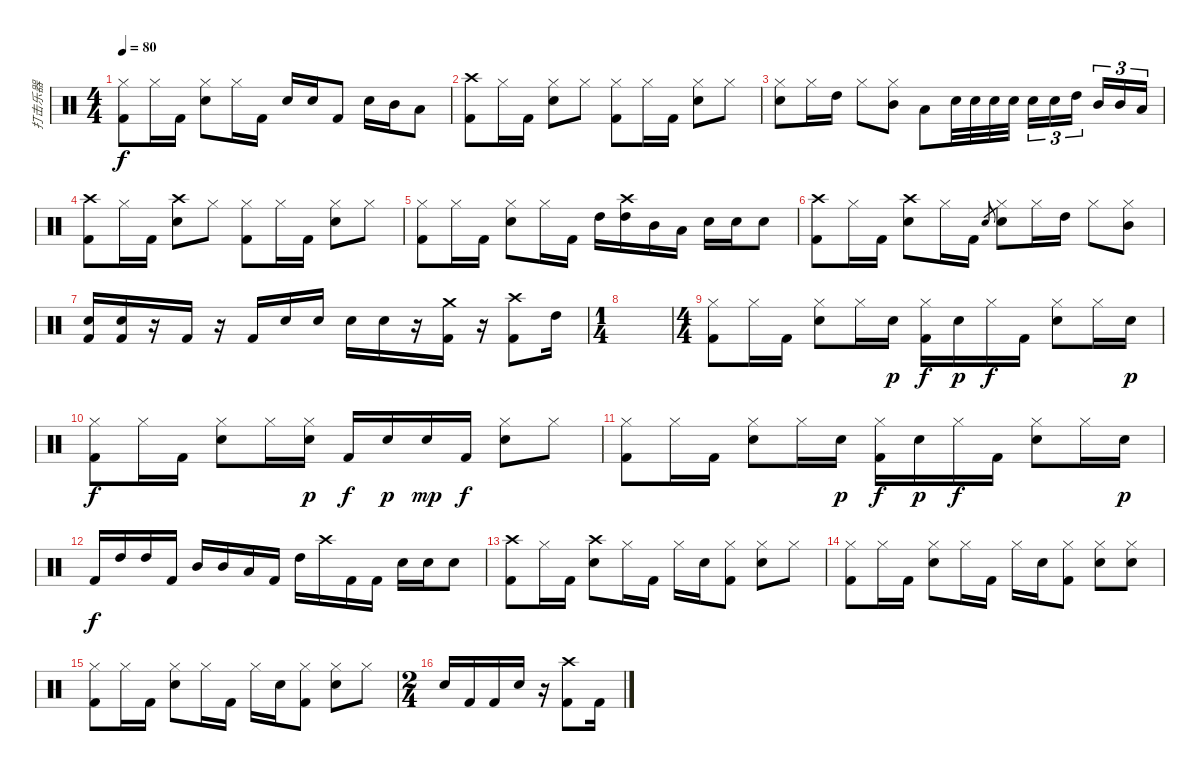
\track ("打击乐器" "打击乐器") {instrument percussion}
\staff {score}
\articulation defaults
\ts (4 4)
\tempo 80
\clef neutral
\ks c
("Hi-Hat (closed)" "Kick (hit) 2").8{dy f} "Hi-Hat (closed)".16 "Kick (hit) 2".16 ("Hi-Hat (closed)" "Electric Snare (hit)").8 "Hi-Hat (closed)".16 "Kick (hit) 2".16 "Electric Snare (hit)".16 "Electric Snare (hit)".16 "Kick (hit) 2".8 "Electric Snare (hit)".16 "Mid Tom (hit)".16 "Low Tom (hit)".8 |
("Crash high (hit)" "Kick (hit) 2").8 "Hi-Hat (closed)".16 "Kick (hit) 2".16 ("Hi-Hat (closed)" "Electric Snare (hit)").8 "Hi-Hat (closed)".8 ("Hi-Hat (closed)" "Kick (hit) 2").8 "Hi-Hat (closed)".16 "Kick (hit) 2".16 ("Hi-Hat (closed)" "Electric Snare (hit)").8 "Hi-Hat (closed)".8 |
("Hi-Hat (closed)" "Electric Snare (hit)").8 "Hi-Hat (closed)".16 "High Tom (hit)".16 "Hi-Hat (closed)".8 ("Hi-Hat (closed)" "Mid Tom (hit)").8 "Low Tom (hit)".8 "Electric Snare (hit)".32 "Electric Snare (hit)".32 "Electric Snare (hit)".32 "Electric Snare (hit)".32 "Electric Snare (hit)".16{tu (3 2)} "Electric Snare (hit)".16{tu (3 2)} "High Tom (hit)".16{tu (3 2)} "Mid Tom (hit)".16{tu (3 2)} "Mid Tom (hit)".16{tu (3 2)} "Low Tom (hit)".16{tu (3 2)} |
("Crash high (hit)" "Kick (hit) 2").8 "Hi-Hat (closed)".16 "Kick (hit) 2".16 ("Crash high (hit)" "Electric Snare (hit)").8 "Hi-Hat (closed)".8 ("Hi-Hat (closed)" "Kick (hit) 2").8 "Hi-Hat (closed)".16 "Kick (hit) 2".16 ("Hi-Hat (closed)" "Electric Snare (hit)").8 "Hi-Hat (closed)".8 |
("Hi-Hat (closed)" "Kick (hit) 2").8 "Hi-Hat (closed)".16 "Kick (hit) 2".16 ("Hi-Hat (closed)" "Electric Snare (hit)").8 "Hi-Hat (closed)".16 "Kick (hit) 2".16 "High Tom (hit)".16 ("Crash high (hit)" "High Tom (hit)").16 "Mid Tom (hit)".16 "Low Tom (hit)".16 "Electric Snare (hit)".16 "Electric Snare (hit)".16 "Electric Snare (hit)".8 |
("Crash high (hit)" "Kick (hit) 2").8 "Hi-Hat (closed)".16 "Kick (hit) 2".16 ("Crash high (hit)" "Electric Snare (hit)").8 "Hi-Hat (closed)".16 "Kick (hit) 2".16 "Electric Snare (hit)".8{gr} ("Hi-Hat (closed)" "Electric Snare (hit)").8 "Hi-Hat (closed)".16 "High Tom (hit)".16 "Hi-Hat (closed)".8 ("Hi-Hat (closed)" "Mid Tom (hit)").8 |
("Electric Snare (hit)" "Kick (hit) 2").16 ("Electric Snare (hit)" "Kick (hit) 2").16 r.16 "Kick (hit) 2".16 r.16 "Kick (hit) 2".16 "Electric Snare (hit)".16 "Electric Snare (hit)".16 "Electric Snare (hit)".16 "Electric Snare (hit)".16 r.16 ("Crash medium (hit)" "Kick (hit) 2").16 r.16 ("Crash high (hit)" "Kick (hit) 2").8 "High Tom (hit)".16 |
\ts (1 4)
|
\ts (4 4)
("Hi-Hat (closed)" "Kick (hit) 2").8 "Hi-Hat (closed)".16 "Kick (hit) 2".16 ("Hi-Hat (closed)" "Snare (hit) 2").8 "Hi-Hat (closed)".16 "Hand Clap (hit)".16{dy p} ("Hi-Hat (closed)" "Kick (hit) 2").16{dy f} "Hand Clap (hit)".16{dy p} "Hi-Hat (closed)".16{dy f} "Kick (hit) 2".16 ("Hi-Hat (closed)" "Snare (hit) 2").8 "Hi-Hat (closed)".16 "Hand Clap (hit)".16{dy p} |
("Hi-Hat (closed)" "Kick (hit) 2").8{dy f} "Hi-Hat (closed)".16 "Kick (hit) 2".16 ("Hi-Hat (closed)" "Snare (hit) 2").8 "Hi-Hat (closed)".16 ("Hi-Hat (closed)" "Hand Clap (hit)").16{dy p} "Kick (hit) 2".16{dy f} "Hand Clap (hit)".16{dy p} "Hand Clap (hit)".16{dy mp} "Kick (hit) 2".16{dy f} ("Hi-Hat (closed)" "Snare (hit) 2").8 "Hi-Hat (closed)".8 |
("Hi-Hat (closed)" "Kick (hit) 2").8 "Hi-Hat (closed)".16 "Kick (hit) 2".16 ("Hi-Hat (closed)" "Snare (hit) 2").8 "Hi-Hat (closed)".16 "Hand Clap (hit)".16{dy p} ("Hi-Hat (closed)" "Kick (hit) 2").16{dy f} "Hand Clap (hit)".16{dy p} "Hi-Hat (closed)".16{dy f} "Kick (hit) 2".16 ("Hi-Hat (closed)" "Snare (hit) 2").8 "Hi-Hat (closed)".16 "Hand Clap (hit)".16{dy p} |
"Kick (hit) 2".16{dy f} "High Tom (hit)".16 "High Tom (hit)".16 "Kick (hit) 2".16 "Mid Tom (hit)".16 "Mid Tom (hit)".16 "Low Tom (hit)".16 "Kick (hit) 2".16 "High Tom (hit)".16 "Crash high (hit)".16 "Kick (hit) 2".16 "Kick (hit) 2".16 "Electric Snare (hit)".16 "Electric Snare (hit)".16 "Electric Snare (hit)".8 |
("Crash high (hit)" "Kick (hit) 2").8 "Hi-Hat (closed)".16 "Kick (hit) 2".16 ("Crash high (hit)" "Electric Snare (hit)").8 "Hi-Hat (closed)".16 "Kick (hit) 2".16 "Hi-Hat (closed)".16 "Electric Snare (hit)".16 ("Hi-Hat (closed)" "Kick (hit) 2").8 ("Hi-Hat (closed)" "Electric Snare (hit)").8 "Hi-Hat (closed)".8 |
("Hi-Hat (closed)" "Kick (hit) 2").8 "Hi-Hat (closed)".16 "Kick (hit) 2".16 ("Hi-Hat (closed)" "Electric Snare (hit)").8 "Hi-Hat (closed)".16 "Kick (hit) 2".16 "Hi-Hat (closed)".16 "Electric Snare (hit)".16 ("Hi-Hat (closed)" "Kick (hit) 2").8 ("Hi-Hat (closed)" "Electric Snare (hit)").8 ("Hi-Hat (closed)" "Electric Snare (hit)").8 |
("Hi-Hat (closed)" "Kick (hit) 2").8 "Hi-Hat (closed)".16 "Kick (hit) 2".16 ("Hi-Hat (closed)" "Electric Snare (hit)").8 "Hi-Hat (closed)".16 "Kick (hit) 2".16 "Hi-Hat (closed)".16 "Electric Snare (hit)".16 ("Hi-Hat (closed)" "Kick (hit) 2").8 ("Hi-Hat (closed)" "Electric Snare (hit)").8 "Hi-Hat (closed)".8 |
\ts (2 4)
"Electric Snare (hit)".16 "Kick (hit) 2".16 "Kick (hit) 2".16 "Electric Snare (hit)".16 r.16 ("Crash high (hit)" "Kick (hit) 2").8 "Kick (hit) 2".16
